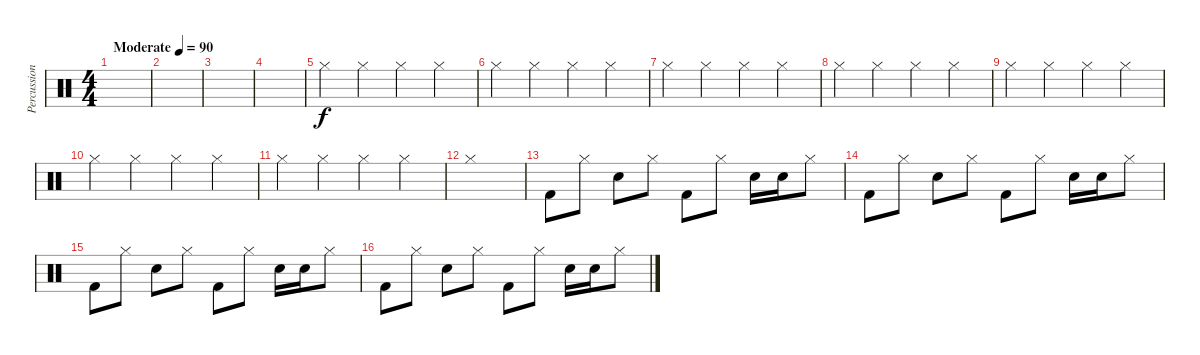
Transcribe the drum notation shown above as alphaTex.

\track ("Percussion" "Percussion") {instrument percussion}
\staff {score}
\articulation defaults
\ts (4 4)
\tempo (90 "Moderate")
\clef neutral
\ks c
|
|
|
|
"Hi-Hat (closed)".4 "Hi-Hat (closed)".4 "Hi-Hat (closed)".4 "Hi-Hat (closed)".4 |
"Hi-Hat (closed)".4 "Hi-Hat (closed)".4 "Hi-Hat (closed)".4 "Hi-Hat (closed)".4 |
"Hi-Hat (closed)".4 "Hi-Hat (closed)".4 "Hi-Hat (closed)".4 "Hi-Hat (closed)".4 |
"Hi-Hat (closed)".4 "Hi-Hat (closed)".4 "Hi-Hat (closed)".4 "Hi-Hat (closed)".4 |
"Hi-Hat (closed)".4 "Hi-Hat (closed)".4 "Hi-Hat (closed)".4 "Hi-Hat (closed)".4 |
"Hi-Hat (closed)".4 "Hi-Hat (closed)".4 "Hi-Hat (closed)".4 "Hi-Hat (closed)".4 |
"Hi-Hat (closed)".4 "Hi-Hat (closed)".4 "Hi-Hat (closed)".4 "Hi-Hat (closed)".4 |
"Hi-Hat (closed)".1 |
"Kick (hit) 2".8 "Hi-Hat (closed)".8 "Snare (hit) 2".8 "Hi-Hat (closed)".8 "Kick (hit) 2".8 "Hi-Hat (closed)".8 "Snare (hit) 2".16 "Snare (hit) 2".16 "Hi-Hat (closed)".8 |
"Kick (hit) 2".8 "Hi-Hat (closed)".8 "Snare (hit) 2".8 "Hi-Hat (closed)".8 "Kick (hit) 2".8 "Hi-Hat (closed)".8 "Snare (hit) 2".16 "Snare (hit) 2".16 "Hi-Hat (closed)".8 |
"Kick (hit) 2".8 "Hi-Hat (closed)".8 "Snare (hit) 2".8 "Hi-Hat (closed)".8 "Kick (hit) 2".8 "Hi-Hat (closed)".8 "Snare (hit) 2".16 "Snare (hit) 2".16 "Hi-Hat (closed)".8 |
"Kick (hit) 2".8 "Hi-Hat (closed)".8 "Snare (hit) 2".8 "Hi-Hat (closed)".8 "Kick (hit) 2".8 "Hi-Hat (closed)".8 "Snare (hit) 2".16 "Snare (hit) 2".16 "Hi-Hat (closed)".8
